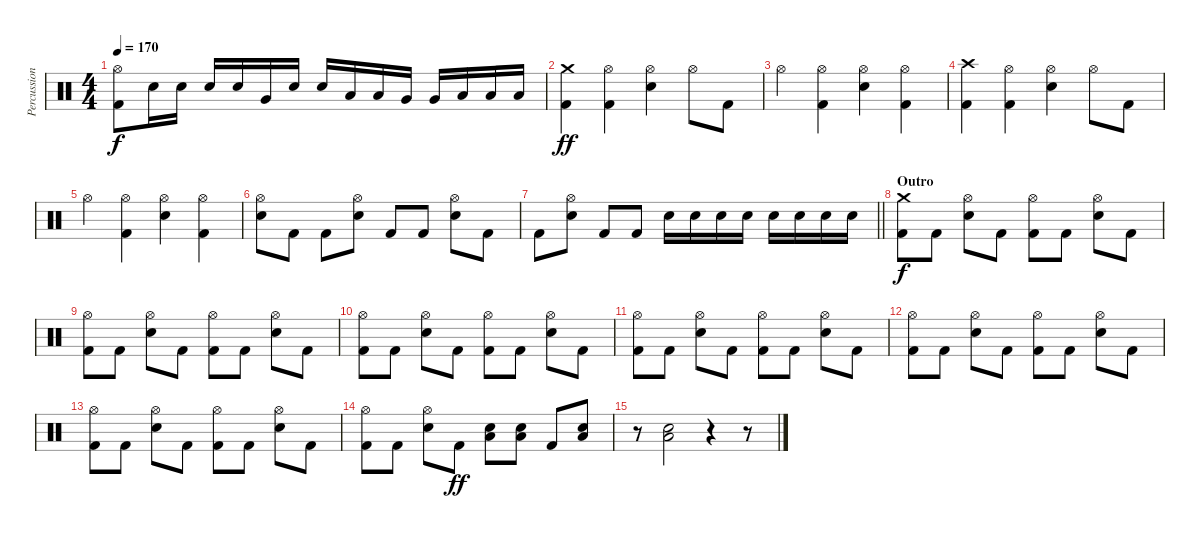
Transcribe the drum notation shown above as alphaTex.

\track ("Percussions" "Percussion") {instrument percussion}
\staff {score}
\articulation defaults
\ts (4 4)
\tempo 170
\clef neutral
\ks c
("Hi-Hat (open)" "Kick (hit) 2").8{dy f} "Snare (hit) 2".16 "Snare (hit) 2".16 "Snare (hit) 2".16 "Snare (hit) 2".16 "Very Low Tom (hit)".16 "Snare (hit) 2".16 "Snare (hit) 2".16 "Low Tom (hit)".16 "Low Tom (hit)".16 "Very Low Tom (hit)".16 "Very Low Tom (hit)".16 "Low Floor Tom (hit)".16 "Low Floor Tom (hit)".16 "Low Floor Tom (hit)".16 |
("Crash medium (hit)" "Kick (hit) 2").4{dy ff} ("Hi-Hat (open)" "Kick (hit) 2").4 ("Hi-Hat (open)" "Electric Snare (hit)").4 "Hi-Hat (open)".8 "Kick (hit) 2".8 |
"Hi-Hat (open)".4 ("Hi-Hat (open)" "Kick (hit) 2").4 ("Hi-Hat (open)" "Electric Snare (hit)").4 ("Hi-Hat (open)" "Kick (hit) 2").4 |
("Crash high (hit)" "Kick (hit) 2").4 ("Hi-Hat (open)" "Kick (hit) 2").4 ("Hi-Hat (open)" "Electric Snare (hit)").4 "Hi-Hat (open)".8 "Kick (hit) 2".8 |
"Hi-Hat (open)".4 ("Hi-Hat (open)" "Kick (hit) 2").4 ("Hi-Hat (open)" "Electric Snare (hit)").4 ("Hi-Hat (open)" "Kick (hit) 2").4 |
("Hi-Hat (open)" "Electric Snare (hit)").8 "Kick (hit) 2".8 "Kick (hit) 2".8 ("Hi-Hat (open)" "Electric Snare (hit)").8 "Kick (hit) 2".8 "Kick (hit) 2".8 ("Hi-Hat (open)" "Electric Snare (hit)").8 "Kick (hit) 2".8 |
\barLineRight lightlight "Kick (hit) 2".8
("Hi-Hat (open)" "Electric Snare (hit)").8 "Kick (hit) 2".8 "Kick (hit) 2".8 "Electric Snare (hit)".16 "Electric Snare (hit)".16 "Electric Snare (hit)".16 "Electric Snare (hit)".16 "Electric Snare (hit)".16 "Electric Snare (hit)".16 "Electric Snare (hit)".16 "Electric Snare (hit)".16 |
\section ("" "Outro")
("Crash medium (hit)" "Kick (hit) 2").8{dy f} "Kick (hit) 2".8 ("Hi-Hat (open)" "Electric Snare (hit)").8 "Kick (hit) 2".8 ("Hi-Hat (open)" "Kick (hit) 2").8 "Kick (hit) 2".8 ("Hi-Hat (open)" "Electric Snare (hit)").8 "Kick (hit) 2".8 |
("Hi-Hat (open)" "Kick (hit) 2").8 "Kick (hit) 2".8 ("Hi-Hat (open)" "Electric Snare (hit)").8 "Kick (hit) 2".8 ("Hi-Hat (open)" "Kick (hit) 2").8 "Kick (hit) 2".8 ("Hi-Hat (open)" "Electric Snare (hit)").8 "Kick (hit) 2".8 |
("Hi-Hat (open)" "Kick (hit) 2").8 "Kick (hit) 2".8 ("Hi-Hat (open)" "Electric Snare (hit)").8 "Kick (hit) 2".8 ("Hi-Hat (open)" "Kick (hit) 2").8 "Kick (hit) 2".8 ("Hi-Hat (open)" "Electric Snare (hit)").8 "Kick (hit) 2".8 |
("Hi-Hat (open)" "Kick (hit) 2").8 "Kick (hit) 2".8 ("Hi-Hat (open)" "Electric Snare (hit)").8 "Kick (hit) 2".8 ("Hi-Hat (open)" "Kick (hit) 2").8 "Kick (hit) 2".8 ("Hi-Hat (open)" "Electric Snare (hit)").8 "Kick (hit) 2".8 |
("Hi-Hat (open)" "Kick (hit) 2").8 "Kick (hit) 2".8 ("Hi-Hat (open)" "Electric Snare (hit)").8 "Kick (hit) 2".8 ("Hi-Hat (open)" "Kick (hit) 2").8 "Kick (hit) 2".8 ("Hi-Hat (open)" "Electric Snare (hit)").8 "Kick (hit) 2".8 |
("Hi-Hat (open)" "Kick (hit) 2").8 "Kick (hit) 2".8 ("Hi-Hat (open)" "Electric Snare (hit)").8 "Kick (hit) 2".8 ("Hi-Hat (open)" "Kick (hit) 2").8 "Kick (hit) 2".8 ("Hi-Hat (open)" "Electric Snare (hit)").8 "Kick (hit) 2".8 |
("Hi-Hat (open)" "Kick (hit) 2").8 "Kick (hit) 2".8 ("Hi-Hat (open)" "Electric Snare (hit)").8 "Kick (hit) 2".8{dy ff} ("Low Floor Tom (hit)" "Electric Snare (hit)").8 ("Low Floor Tom (hit)" "Electric Snare (hit)").8 "Kick (hit) 2".8 ("Low Floor Tom (hit)" "Electric Snare (hit)").8 |
r.8 ("Low Floor Tom (hit)" "Electric Snare (hit)").2 r.4 r.8
